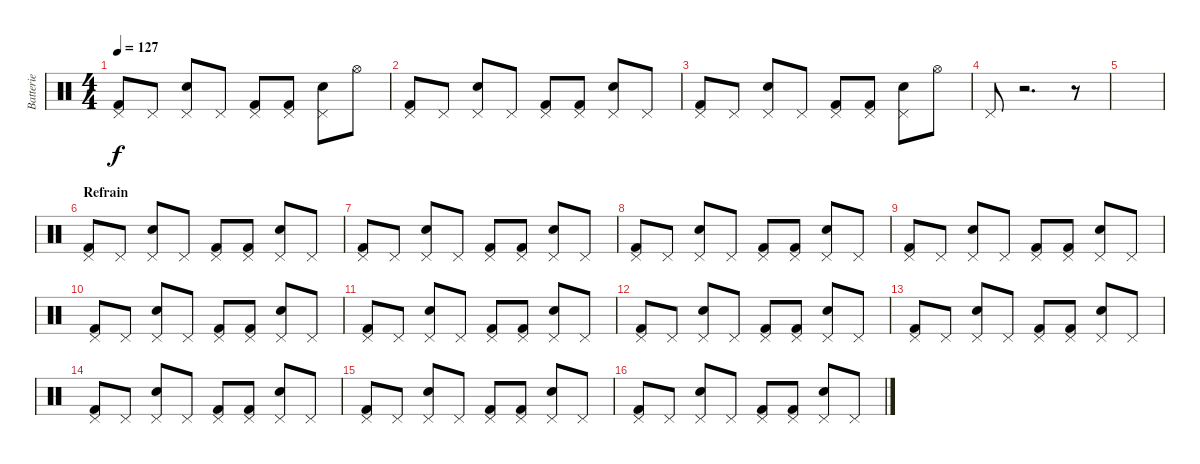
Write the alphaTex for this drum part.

\track ("Batterie" "Batterie") {instrument percussion}
\staff {score}
\articulation defaults
\ts (4 4)
\tempo 127
\clef neutral
\ks c
("Pedal Hi-Hat (hit)" "Kick (hit) 2").8{dy f} "Pedal Hi-Hat (hit)".8 ("Pedal Hi-Hat (hit)" "Electric Snare (hit)").8 "Pedal Hi-Hat (hit)".8 ("Pedal Hi-Hat (hit)" "Kick (hit) 2").8 ("Pedal Hi-Hat (hit)" "Kick (hit) 2").8 ("Pedal Hi-Hat (hit)" "Electric Snare (hit)").8 "Hi-Hat (open)".8 |
("Pedal Hi-Hat (hit)" "Kick (hit) 2").8 "Pedal Hi-Hat (hit)".8 ("Pedal Hi-Hat (hit)" "Electric Snare (hit)").8 "Pedal Hi-Hat (hit)".8 ("Pedal Hi-Hat (hit)" "Kick (hit) 2").8 ("Pedal Hi-Hat (hit)" "Kick (hit) 2").8 ("Pedal Hi-Hat (hit)" "Electric Snare (hit)").8 "Pedal Hi-Hat (hit)".8 |
("Pedal Hi-Hat (hit)" "Kick (hit) 2").8 "Pedal Hi-Hat (hit)".8 ("Pedal Hi-Hat (hit)" "Electric Snare (hit)").8 "Pedal Hi-Hat (hit)".8 ("Pedal Hi-Hat (hit)" "Kick (hit) 2").8 ("Pedal Hi-Hat (hit)" "Kick (hit) 2").8 ("Pedal Hi-Hat (hit)" "Electric Snare (hit)").8 "Hi-Hat (open)".8 |
"Pedal Hi-Hat (hit)".8 r.2{d} r.8 |
|
\section ("" "Refrain")
("Pedal Hi-Hat (hit)" "Kick (hit) 2").8 "Pedal Hi-Hat (hit)".8 ("Pedal Hi-Hat (hit)" "Electric Snare (hit)").8 "Pedal Hi-Hat (hit)".8 ("Pedal Hi-Hat (hit)" "Kick (hit) 2").8 ("Pedal Hi-Hat (hit)" "Kick (hit) 2").8 ("Pedal Hi-Hat (hit)" "Electric Snare (hit)").8 "Pedal Hi-Hat (hit)".8 |
("Pedal Hi-Hat (hit)" "Kick (hit) 2").8 "Pedal Hi-Hat (hit)".8 ("Pedal Hi-Hat (hit)" "Electric Snare (hit)").8 "Pedal Hi-Hat (hit)".8 ("Pedal Hi-Hat (hit)" "Kick (hit) 2").8 ("Pedal Hi-Hat (hit)" "Kick (hit) 2").8 ("Pedal Hi-Hat (hit)" "Electric Snare (hit)").8 "Pedal Hi-Hat (hit)".8 |
("Pedal Hi-Hat (hit)" "Kick (hit) 2").8 "Pedal Hi-Hat (hit)".8 ("Pedal Hi-Hat (hit)" "Electric Snare (hit)").8 "Pedal Hi-Hat (hit)".8 ("Pedal Hi-Hat (hit)" "Kick (hit) 2").8 ("Pedal Hi-Hat (hit)" "Kick (hit) 2").8 ("Pedal Hi-Hat (hit)" "Electric Snare (hit)").8 "Pedal Hi-Hat (hit)".8 |
("Pedal Hi-Hat (hit)" "Kick (hit) 2").8 "Pedal Hi-Hat (hit)".8 ("Pedal Hi-Hat (hit)" "Electric Snare (hit)").8 "Pedal Hi-Hat (hit)".8 ("Pedal Hi-Hat (hit)" "Kick (hit) 2").8 ("Pedal Hi-Hat (hit)" "Kick (hit) 2").8 ("Pedal Hi-Hat (hit)" "Electric Snare (hit)").8 "Pedal Hi-Hat (hit)".8 |
("Pedal Hi-Hat (hit)" "Kick (hit) 2").8 "Pedal Hi-Hat (hit)".8 ("Pedal Hi-Hat (hit)" "Electric Snare (hit)").8 "Pedal Hi-Hat (hit)".8 ("Pedal Hi-Hat (hit)" "Kick (hit) 2").8 ("Pedal Hi-Hat (hit)" "Kick (hit) 2").8 ("Pedal Hi-Hat (hit)" "Electric Snare (hit)").8 "Pedal Hi-Hat (hit)".8 |
("Pedal Hi-Hat (hit)" "Kick (hit) 2").8 "Pedal Hi-Hat (hit)".8 ("Pedal Hi-Hat (hit)" "Electric Snare (hit)").8 "Pedal Hi-Hat (hit)".8 ("Pedal Hi-Hat (hit)" "Kick (hit) 2").8 ("Pedal Hi-Hat (hit)" "Kick (hit) 2").8 ("Pedal Hi-Hat (hit)" "Electric Snare (hit)").8 "Pedal Hi-Hat (hit)".8 |
("Pedal Hi-Hat (hit)" "Kick (hit) 2").8 "Pedal Hi-Hat (hit)".8 ("Pedal Hi-Hat (hit)" "Electric Snare (hit)").8 "Pedal Hi-Hat (hit)".8 ("Pedal Hi-Hat (hit)" "Kick (hit) 2").8 ("Pedal Hi-Hat (hit)" "Kick (hit) 2").8 ("Pedal Hi-Hat (hit)" "Electric Snare (hit)").8 "Pedal Hi-Hat (hit)".8 |
("Pedal Hi-Hat (hit)" "Kick (hit) 2").8 "Pedal Hi-Hat (hit)".8 ("Pedal Hi-Hat (hit)" "Electric Snare (hit)").8 "Pedal Hi-Hat (hit)".8 ("Pedal Hi-Hat (hit)" "Kick (hit) 2").8 ("Pedal Hi-Hat (hit)" "Kick (hit) 2").8 ("Pedal Hi-Hat (hit)" "Electric Snare (hit)").8 "Pedal Hi-Hat (hit)".8 |
("Pedal Hi-Hat (hit)" "Kick (hit) 2").8 "Pedal Hi-Hat (hit)".8 ("Pedal Hi-Hat (hit)" "Electric Snare (hit)").8 "Pedal Hi-Hat (hit)".8 ("Pedal Hi-Hat (hit)" "Kick (hit) 2").8 ("Pedal Hi-Hat (hit)" "Kick (hit) 2").8 ("Pedal Hi-Hat (hit)" "Electric Snare (hit)").8 "Pedal Hi-Hat (hit)".8 |
("Pedal Hi-Hat (hit)" "Kick (hit) 2").8 "Pedal Hi-Hat (hit)".8 ("Pedal Hi-Hat (hit)" "Electric Snare (hit)").8 "Pedal Hi-Hat (hit)".8 ("Pedal Hi-Hat (hit)" "Kick (hit) 2").8 ("Pedal Hi-Hat (hit)" "Kick (hit) 2").8 ("Pedal Hi-Hat (hit)" "Electric Snare (hit)").8 "Pedal Hi-Hat (hit)".8 |
("Pedal Hi-Hat (hit)" "Kick (hit) 2").8 "Pedal Hi-Hat (hit)".8 ("Pedal Hi-Hat (hit)" "Electric Snare (hit)").8 "Pedal Hi-Hat (hit)".8 ("Pedal Hi-Hat (hit)" "Kick (hit) 2").8 ("Pedal Hi-Hat (hit)" "Kick (hit) 2").8 ("Pedal Hi-Hat (hit)" "Electric Snare (hit)").8 "Pedal Hi-Hat (hit)".8
